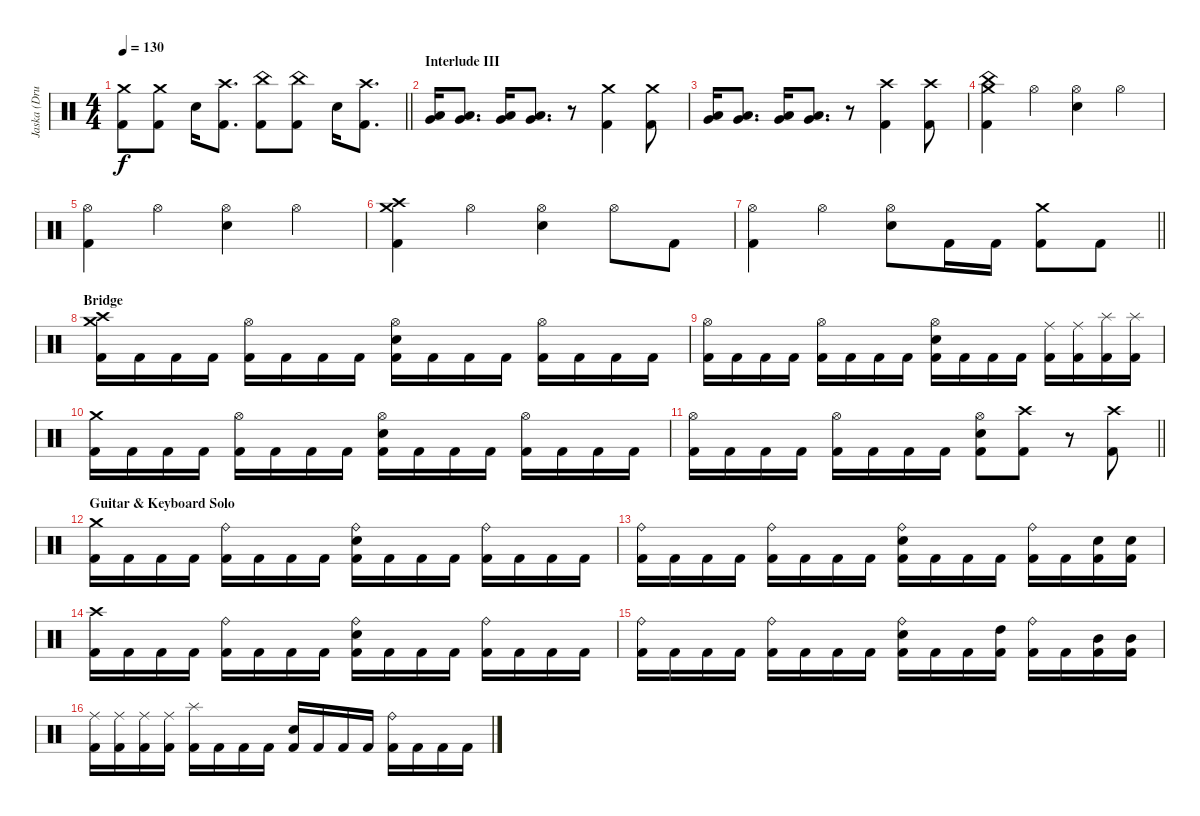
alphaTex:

\track ("Jaska (Drums)" "Jaska (Dru") {instrument percussion}
\staff {score}
\articulation defaults
\ts (4 4)
\tempo 130
\clef neutral
\barLineRight lightlight
\ks c
("Crash medium (hit)" "Kick (hit) 2").8{dy f} ("Crash medium (hit)" "Kick (hit) 2").8 "Electric Snare (hit)".16 ("Crash high (hit)" "Kick (hit) 2").8{d} ("China (hit)" "Kick (hit) 2").8 ("China (hit)" "Kick (hit) 2").8 "Electric Snare (hit)".16 ("Crash high (hit)" "Kick (hit) 2").8{d} |
\section ("" "Interlude III")
("Very Low Tom (hit)" "Low Floor Tom (hit)").16 ("Very Low Tom (hit)" "Low Floor Tom (hit)").8{d} ("Very Low Tom (hit)" "Low Floor Tom (hit)").16 ("Very Low Tom (hit)" "Low Floor Tom (hit)").8{d} r.8 ("Crash medium (hit)" "Kick (hit) 2").4 ("Crash medium (hit)" "Kick (hit) 2").8 |
("Very Low Tom (hit)" "Low Floor Tom (hit)").16 ("Very Low Tom (hit)" "Low Floor Tom (hit)").8{d} ("Very Low Tom (hit)" "Low Floor Tom (hit)").16 ("Very Low Tom (hit)" "Low Floor Tom (hit)").8{d} r.8 ("Crash high (hit)" "Kick (hit) 2").4 ("Crash high (hit)" "Kick (hit) 2").8 |
("Crash medium (hit)" "China (hit)" "Kick (hit) 2").4 "Hi-Hat (open)".4 ("Hi-Hat (open)" "Electric Snare (hit)").4 "Hi-Hat (open)".4 |
("Hi-Hat (open)" "Kick (hit) 2").4 "Hi-Hat (open)".4 ("Hi-Hat (open)" "Electric Snare (hit)").4 "Hi-Hat (open)".4 |
("Crash medium (hit)" "Crash high (hit)" "Kick (hit) 2").4 "Hi-Hat (open)".4 ("Hi-Hat (open)" "Electric Snare (hit)").4 "Hi-Hat (open)".8 "Kick (hit) 2".8 |
\barLineRight lightlight
("Hi-Hat (open)" "Kick (hit) 2").4 "Hi-Hat (open)".4 ("Hi-Hat (open)" "Electric Snare (hit)").8 "Kick (hit) 2".16 "Kick (hit) 2".16 ("Crash medium (hit)" "Kick (hit) 2").8 "Kick (hit) 2".8 |
\section ("" "Bridge")
("Crash medium (hit)" "Crash high (hit)" "Kick (hit) 2").16 "Kick (hit) 2".16 "Kick (hit) 2".16 "Kick (hit) 2".16 ("Hi-Hat (open)" "Kick (hit) 2").16 "Kick (hit) 2".16 "Kick (hit) 2".16 "Kick (hit) 2".16 ("Hi-Hat (open)" "Electric Snare (hit)" "Kick (hit) 2").16 "Kick (hit) 2".16 "Kick (hit) 2".16 "Kick (hit) 2".16 ("Hi-Hat (open)" "Kick (hit) 2").16 "Kick (hit) 2".16 "Kick (hit) 2".16 "Kick (hit) 2".16 |
("Hi-Hat (open)" "Kick (hit) 2").16 "Kick (hit) 2".16 "Kick (hit) 2".16 "Kick (hit) 2".16 ("Hi-Hat (open)" "Kick (hit) 2").16 "Kick (hit) 2".16 "Kick (hit) 2".16 "Kick (hit) 2".16 ("Hi-Hat (open)" "Electric Snare (hit)" "Kick (hit) 2").16 "Kick (hit) 2".16 "Kick (hit) 2".16 "Kick (hit) 2".16 ("Ride (middle)" "Kick (hit) 2").16 ("Ride (middle)" "Kick (hit) 2").16 ("Splash (hit)" "Kick (hit) 2").16 ("Splash (hit)" "Kick (hit) 2").16 |
("Crash medium (hit)" "Kick (hit) 2").16 "Kick (hit) 2".16 "Kick (hit) 2".16 "Kick (hit) 2".16 ("Hi-Hat (open)" "Kick (hit) 2").16 "Kick (hit) 2".16 "Kick (hit) 2".16 "Kick (hit) 2".16 ("Hi-Hat (open)" "Electric Snare (hit)" "Kick (hit) 2").16 "Kick (hit) 2".16 "Kick (hit) 2".16 "Kick (hit) 2".16 ("Hi-Hat (open)" "Kick (hit) 2").16 "Kick (hit) 2".16 "Kick (hit) 2".16 "Kick (hit) 2".16 |
\barLineRight lightlight
("Hi-Hat (open)" "Kick (hit) 2").16 "Kick (hit) 2".16 "Kick (hit) 2".16 "Kick (hit) 2".16 ("Hi-Hat (open)" "Kick (hit) 2").16 "Kick (hit) 2".16 "Kick (hit) 2".16 "Kick (hit) 2".16 ("Hi-Hat (open)" "Electric Snare (hit)" "Kick (hit) 2").8 ("Crash high (hit)" "Kick (hit) 2").8 r.8{volume 0} ("Crash high (hit)" "Kick (hit) 2").8{volume 16} |
\section ("" "Guitar & Keyboard Solo")
("Crash medium (hit)" "Kick (hit) 2").16 "Kick (hit) 2".16 "Kick (hit) 2".16 "Kick (hit) 2".16 ("Ride (bell)" "Kick (hit) 2").16 "Kick (hit) 2".16 "Kick (hit) 2".16 "Kick (hit) 2".16 ("Ride (bell)" "Electric Snare (hit)" "Kick (hit) 2").16 "Kick (hit) 2".16 "Kick (hit) 2".16 "Kick (hit) 2".16 ("Ride (bell)" "Kick (hit) 2").16 "Kick (hit) 2".16 "Kick (hit) 2".16 "Kick (hit) 2".16 |
("Ride (bell)" "Kick (hit) 2").16 "Kick (hit) 2".16 "Kick (hit) 2".16 "Kick (hit) 2".16 ("Ride (bell)" "Kick (hit) 2").16 "Kick (hit) 2".16 "Kick (hit) 2".16 "Kick (hit) 2".16 ("Ride (bell)" "Electric Snare (hit)" "Kick (hit) 2").16 "Kick (hit) 2".16 "Kick (hit) 2".16 "Kick (hit) 2".16 ("Ride (bell)" "Kick (hit) 2").16 "Kick (hit) 2".16 ("Electric Snare (hit)" "Kick (hit) 2").16 ("Electric Snare (hit)" "Kick (hit) 2").16 |
("Crash high (hit)" "Kick (hit) 2").16 "Kick (hit) 2".16 "Kick (hit) 2".16 "Kick (hit) 2".16 ("Ride (bell)" "Kick (hit) 2").16 "Kick (hit) 2".16 "Kick (hit) 2".16 "Kick (hit) 2".16 ("Ride (bell)" "Electric Snare (hit)" "Kick (hit) 2").16 "Kick (hit) 2".16 "Kick (hit) 2".16 "Kick (hit) 2".16 ("Ride (bell)" "Kick (hit) 2").16 "Kick (hit) 2".16 "Kick (hit) 2".16 "Kick (hit) 2".16 |
("Ride (bell)" "Kick (hit) 2").16 "Kick (hit) 2".16 "Kick (hit) 2".16 "Kick (hit) 2".16 ("Ride (bell)" "Kick (hit) 2").16 "Kick (hit) 2".16 "Kick (hit) 2".16 "Kick (hit) 2".16 ("Ride (bell)" "Electric Snare (hit)" "Kick (hit) 2").16 "Kick (hit) 2".16 "Kick (hit) 2".16 ("High Tom (hit)" "Kick (hit) 2").16 ("Ride (bell)" "Kick (hit) 2").16 "Kick (hit) 2".16 ("Mid Tom (hit)" "Kick (hit) 2").16 ("Mid Tom (hit)" "Kick (hit) 2").16 |
("Ride (middle)" "Kick (hit) 2").16 ("Ride (middle)" "Kick (hit) 2").16 ("Ride (middle)" "Kick (hit) 2").16 ("Ride (middle)" "Kick (hit) 2").16 ("Splash (hit)" "Kick (hit) 2").16 "Kick (hit) 2".16 "Kick (hit) 2".16 "Kick (hit) 2".16 ("Electric Snare (hit)" "Kick (hit) 2").16 "Kick (hit) 2".16 "Kick (hit) 2".16 "Kick (hit) 2".16 ("Ride (bell)" "Kick (hit) 2").16 "Kick (hit) 2".16 "Kick (hit) 2".16 "Kick (hit) 2".16
